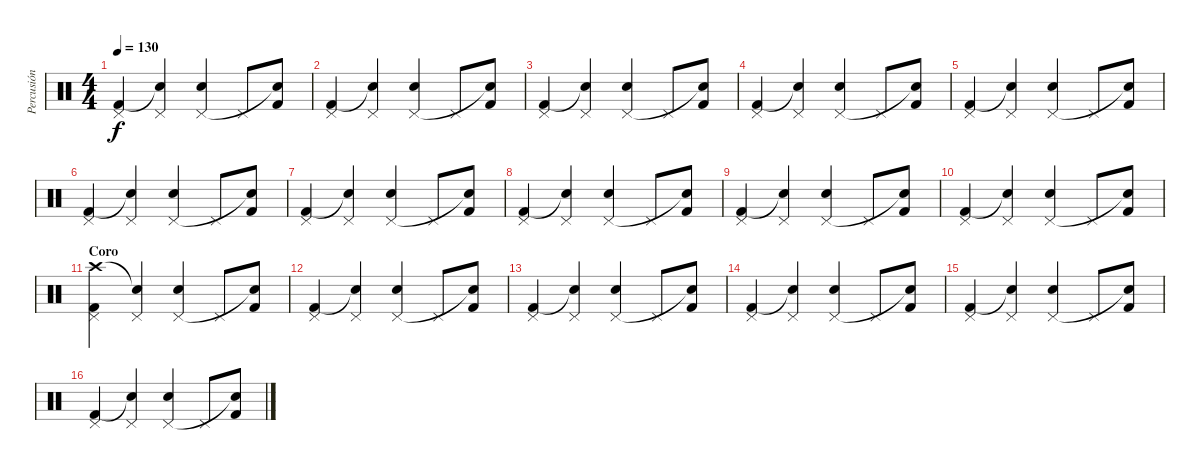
\track ("Percusión" "Percusión") {instrument percussion}
\staff {score}
\articulation defaults
\ts (4 4)
\tempo 130
\clef neutral
\ks c
("Kick (hit) 2" "Pedal Hi-Hat (hit)").4{dy f} ("Snare (hit)"{t} "Pedal Hi-Hat (hit)").4 ("Snare (hit) 2" "Pedal Hi-Hat (hit)").4 "Pedal Hi-Hat (hit)".8 ("Kick (hit) 2" "Snare (hit)"{t}).8 |
("Kick (hit) 2" "Pedal Hi-Hat (hit)").4 ("Snare (hit)"{t} "Pedal Hi-Hat (hit)").4 ("Snare (hit) 2" "Pedal Hi-Hat (hit)").4 "Pedal Hi-Hat (hit)".8 ("Kick (hit) 2" "Snare (hit)"{t}).8 |
("Kick (hit) 2" "Pedal Hi-Hat (hit)").4 ("Snare (hit)"{t} "Pedal Hi-Hat (hit)").4 ("Snare (hit) 2" "Pedal Hi-Hat (hit)").4 "Pedal Hi-Hat (hit)".8 ("Kick (hit) 2" "Snare (hit)"{t}).8 |
("Kick (hit) 2" "Pedal Hi-Hat (hit)").4 ("Snare (hit)"{t} "Pedal Hi-Hat (hit)").4 ("Snare (hit) 2" "Pedal Hi-Hat (hit)").4 "Pedal Hi-Hat (hit)".8 ("Kick (hit) 2" "Snare (hit)"{t}).8 |
("Kick (hit) 2" "Pedal Hi-Hat (hit)").4 ("Snare (hit)"{t} "Pedal Hi-Hat (hit)").4 ("Snare (hit) 2" "Pedal Hi-Hat (hit)").4 "Pedal Hi-Hat (hit)".8 ("Kick (hit) 2" "Snare (hit)"{t}).8 |
("Kick (hit) 2" "Pedal Hi-Hat (hit)").4 ("Snare (hit)"{t} "Pedal Hi-Hat (hit)").4 ("Snare (hit) 2" "Pedal Hi-Hat (hit)").4 "Pedal Hi-Hat (hit)".8 ("Kick (hit) 2" "Snare (hit)"{t}).8 |
("Kick (hit) 2" "Pedal Hi-Hat (hit)").4 ("Snare (hit)"{t} "Pedal Hi-Hat (hit)").4 ("Snare (hit) 2" "Pedal Hi-Hat (hit)").4 "Pedal Hi-Hat (hit)".8 ("Kick (hit) 2" "Snare (hit)"{t}).8 |
("Kick (hit) 2" "Pedal Hi-Hat (hit)").4 ("Snare (hit)"{t} "Pedal Hi-Hat (hit)").4 ("Snare (hit) 2" "Pedal Hi-Hat (hit)").4 "Pedal Hi-Hat (hit)".8 ("Kick (hit) 2" "Snare (hit)"{t}).8 |
("Kick (hit) 2" "Pedal Hi-Hat (hit)").4 ("Snare (hit)"{t} "Pedal Hi-Hat (hit)").4 ("Snare (hit) 2" "Pedal Hi-Hat (hit)").4 "Pedal Hi-Hat (hit)".8 ("Kick (hit) 2" "Snare (hit)"{t}).8 |
("Kick (hit) 2" "Pedal Hi-Hat (hit)").4 ("Snare (hit)"{t} "Pedal Hi-Hat (hit)").4 ("Snare (hit) 2" "Pedal Hi-Hat (hit)").4 "Pedal Hi-Hat (hit)".8 ("Kick (hit) 2" "Snare (hit)"{t}).8 |
\section ("" "Coro")
("Crash high (hit)" "Kick (hit) 2" "Pedal Hi-Hat (hit)").4 ("Snare (hit)"{t} "Pedal Hi-Hat (hit)").4 ("Snare (hit) 2" "Pedal Hi-Hat (hit)").4 "Pedal Hi-Hat (hit)".8 ("Kick (hit) 2" "Snare (hit)"{t}).8 |
("Kick (hit) 2" "Pedal Hi-Hat (hit)").4 ("Snare (hit)"{t} "Pedal Hi-Hat (hit)").4 ("Snare (hit) 2" "Pedal Hi-Hat (hit)").4 "Pedal Hi-Hat (hit)".8 ("Kick (hit) 2" "Snare (hit)"{t}).8 |
("Kick (hit) 2" "Pedal Hi-Hat (hit)").4 ("Snare (hit)"{t} "Pedal Hi-Hat (hit)").4 ("Snare (hit) 2" "Pedal Hi-Hat (hit)").4 "Pedal Hi-Hat (hit)".8 ("Kick (hit) 2" "Snare (hit)"{t}).8 |
("Kick (hit) 2" "Pedal Hi-Hat (hit)").4 ("Snare (hit)"{t} "Pedal Hi-Hat (hit)").4 ("Snare (hit) 2" "Pedal Hi-Hat (hit)").4 "Pedal Hi-Hat (hit)".8 ("Kick (hit) 2" "Snare (hit)"{t}).8 |
("Kick (hit) 2" "Pedal Hi-Hat (hit)").4 ("Snare (hit)"{t} "Pedal Hi-Hat (hit)").4 ("Snare (hit) 2" "Pedal Hi-Hat (hit)").4 "Pedal Hi-Hat (hit)".8 ("Kick (hit) 2" "Snare (hit)"{t}).8 |
("Kick (hit) 2" "Pedal Hi-Hat (hit)").4 ("Snare (hit)"{t} "Pedal Hi-Hat (hit)").4 ("Snare (hit) 2" "Pedal Hi-Hat (hit)").4 "Pedal Hi-Hat (hit)".8 ("Kick (hit) 2" "Snare (hit)"{t}).8
